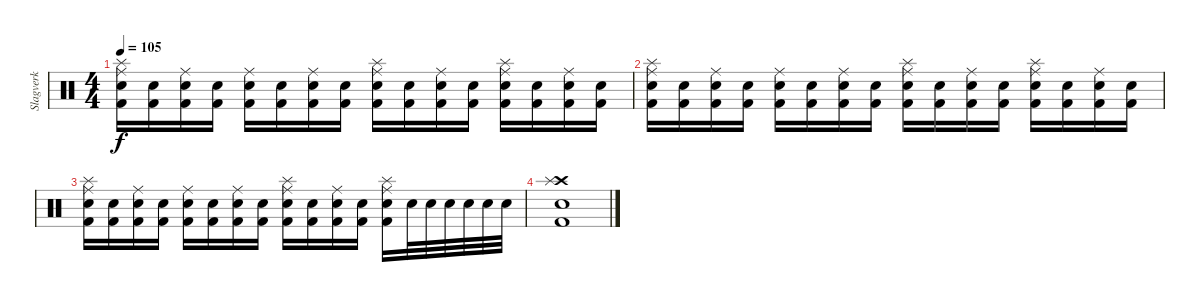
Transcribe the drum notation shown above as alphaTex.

\track ("Slagverk" "Slagverk") {instrument percussion}
\staff {score}
\articulation defaults
\ts (4 4)
\tempo 105
\clef neutral
\ks c
("Ride (middle)" "Splash (hit)" "Electric Snare (hit)" "Kick (hit) 2").16{dy f} ("Electric Snare (hit)" "Kick (hit) 2").16 ("Ride (middle)" "Electric Snare (hit)" "Kick (hit) 2").16 ("Electric Snare (hit)" "Kick (hit) 2").16 ("Ride (middle)" "Electric Snare (hit)" "Kick (hit) 2").16 ("Electric Snare (hit)" "Kick (hit) 2").16 ("Ride (middle)" "Electric Snare (hit)" "Kick (hit) 2").16 ("Electric Snare (hit)" "Kick (hit) 2").16 ("Ride (middle)" "Splash (hit)" "Electric Snare (hit)" "Kick (hit) 2").16 ("Electric Snare (hit)" "Kick (hit) 2").16 ("Ride (middle)" "Electric Snare (hit)" "Kick (hit) 2").16 ("Electric Snare (hit)" "Kick (hit) 2").16 ("Ride (middle)" "Splash (hit)" "Electric Snare (hit)" "Kick (hit) 2").16 ("Electric Snare (hit)" "Kick (hit) 2").16 ("Ride (middle)" "Electric Snare (hit)" "Kick (hit) 2").16 ("Electric Snare (hit)" "Kick (hit) 2").16 |
("Ride (middle)" "Splash (hit)" "Electric Snare (hit)" "Kick (hit) 2").16 ("Electric Snare (hit)" "Kick (hit) 2").16 ("Ride (middle)" "Electric Snare (hit)" "Kick (hit) 2").16 ("Electric Snare (hit)" "Kick (hit) 2").16 ("Ride (middle)" "Electric Snare (hit)" "Kick (hit) 2").16 ("Electric Snare (hit)" "Kick (hit) 2").16 ("Ride (middle)" "Electric Snare (hit)" "Kick (hit) 2").16 ("Electric Snare (hit)" "Kick (hit) 2").16 ("Ride (middle)" "Splash (hit)" "Electric Snare (hit)" "Kick (hit) 2").16 ("Electric Snare (hit)" "Kick (hit) 2").16 ("Ride (middle)" "Electric Snare (hit)" "Kick (hit) 2").16 ("Electric Snare (hit)" "Kick (hit) 2").16 ("Ride (middle)" "Splash (hit)" "Electric Snare (hit)" "Kick (hit) 2").16 ("Electric Snare (hit)" "Kick (hit) 2").16 ("Ride (middle)" "Electric Snare (hit)" "Kick (hit) 2").16 ("Electric Snare (hit)" "Kick (hit) 2").16 |
("Ride (middle)" "Splash (hit)" "Electric Snare (hit)" "Kick (hit) 2").16 ("Electric Snare (hit)" "Kick (hit) 2").16 ("Ride (middle)" "Electric Snare (hit)" "Kick (hit) 2").16 ("Electric Snare (hit)" "Kick (hit) 2").16 ("Ride (middle)" "Electric Snare (hit)" "Kick (hit) 2").16 ("Electric Snare (hit)" "Kick (hit) 2").16 ("Ride (middle)" "Electric Snare (hit)" "Kick (hit) 2").16 ("Electric Snare (hit)" "Kick (hit) 2").16 ("Ride (middle)" "Splash (hit)" "Electric Snare (hit)" "Kick (hit) 2").16 ("Electric Snare (hit)" "Kick (hit) 2").16 ("Ride (middle)" "Electric Snare (hit)" "Kick (hit) 2").16 ("Electric Snare (hit)" "Kick (hit) 2").16 ("Ride (middle)" "Splash (hit)" "Electric Snare (hit)" "Kick (hit) 2").16 "Electric Snare (hit)".32 "Electric Snare (hit)".32 "Electric Snare (hit)".32 "Electric Snare (hit)".32 "Electric Snare (hit)".32 "Electric Snare (hit)".32 |
("Crash high (hit)" "Splash (hit)" "Electric Snare (hit)" "Kick (hit) 2").1
